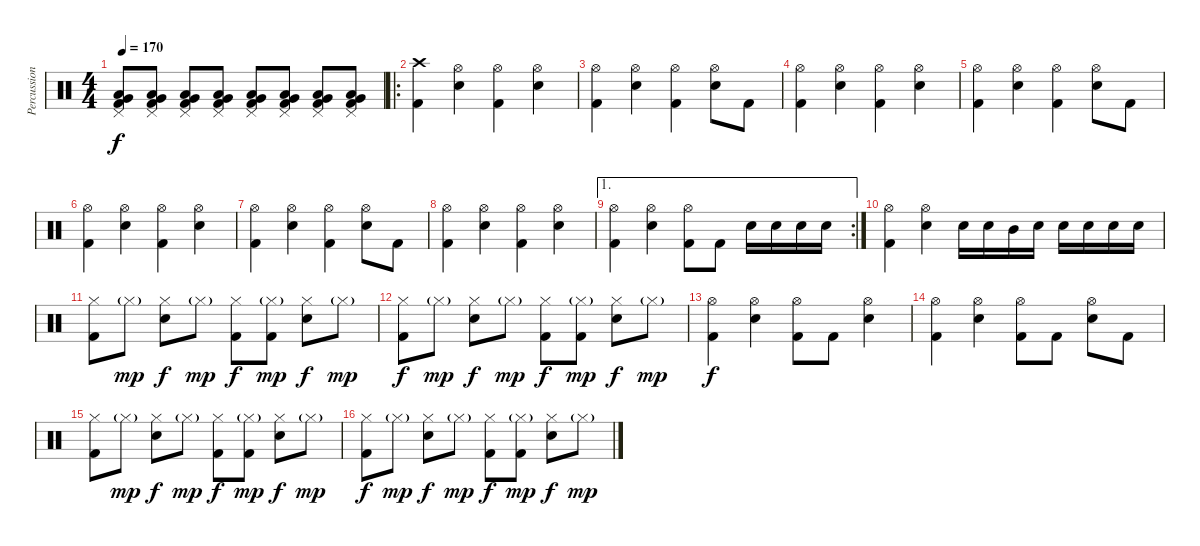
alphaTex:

\track ("Percussion" "Percussion") {instrument percussion}
\staff {score}
\articulation defaults
\ts (4 4)
\tempo 170
\clef neutral
\ks c
("Pedal Hi-Hat (hit)" "Low Tom (hit)" "Very Low Tom (hit)" "Kick (hit) 2").8{dy f} ("Pedal Hi-Hat (hit)" "Low Tom (hit)" "Very Low Tom (hit)" "Kick (hit) 2").8 ("Pedal Hi-Hat (hit)" "Low Tom (hit)" "Very Low Tom (hit)" "Kick (hit) 2").8 ("Pedal Hi-Hat (hit)" "Low Tom (hit)" "Very Low Tom (hit)" "Kick (hit) 2").8 ("Pedal Hi-Hat (hit)" "Low Tom (hit)" "Very Low Tom (hit)" "Kick (hit) 2").8 ("Pedal Hi-Hat (hit)" "Low Tom (hit)" "Very Low Tom (hit)" "Kick (hit) 2").8 ("Pedal Hi-Hat (hit)" "Low Tom (hit)" "Very Low Tom (hit)" "Kick (hit) 2").8 ("Pedal Hi-Hat (hit)" "Low Tom (hit)" "Very Low Tom (hit)" "Kick (hit) 2").8 |
\ro
("Crash high (hit)" "Kick (hit) 2").4 ("Hi-Hat (open)" "Snare (hit) 2").4 ("Hi-Hat (open)" "Kick (hit) 2").4 ("Hi-Hat (open)" "Snare (hit) 2").4 |
("Hi-Hat (open)" "Kick (hit) 2").4 ("Hi-Hat (open)" "Snare (hit) 2").4 ("Hi-Hat (open)" "Kick (hit) 2").4 ("Hi-Hat (open)" "Snare (hit) 2").8 "Kick (hit) 2".8 |
("Hi-Hat (open)" "Kick (hit) 2").4 ("Hi-Hat (open)" "Snare (hit) 2").4 ("Hi-Hat (open)" "Kick (hit) 2").4 ("Hi-Hat (open)" "Snare (hit) 2").4 |
("Hi-Hat (open)" "Kick (hit) 2").4 ("Hi-Hat (open)" "Snare (hit) 2").4 ("Hi-Hat (open)" "Kick (hit) 2").4 ("Hi-Hat (open)" "Snare (hit) 2").8 "Kick (hit) 2".8 |
("Hi-Hat (open)" "Kick (hit) 2").4 ("Hi-Hat (open)" "Snare (hit) 2").4 ("Hi-Hat (open)" "Kick (hit) 2").4 ("Hi-Hat (open)" "Snare (hit) 2").4 |
("Hi-Hat (open)" "Kick (hit) 2").4 ("Hi-Hat (open)" "Snare (hit) 2").4 ("Hi-Hat (open)" "Kick (hit) 2").4 ("Hi-Hat (open)" "Snare (hit) 2").8 "Kick (hit) 2".8 |
("Hi-Hat (open)" "Kick (hit) 2").4 ("Hi-Hat (open)" "Snare (hit) 2").4 ("Hi-Hat (open)" "Kick (hit) 2").4 ("Hi-Hat (open)" "Snare (hit) 2").4 |
\ae 1
\rc 2
("Hi-Hat (open)" "Kick (hit) 2").4 ("Hi-Hat (open)" "Snare (hit) 2").4 ("Hi-Hat (open)" "Kick (hit) 2").8 "Kick (hit) 2".8 "Snare (hit) 2".16 "Snare (hit) 2".16 "Snare (hit) 2".16 "Snare (hit) 2".16 |
("Hi-Hat (open)" "Kick (hit) 2").4 ("Hi-Hat (open)" "Snare (hit) 2").4 "Snare (hit) 2".16 "Snare (hit) 2".16 "Mid Tom (hit)".16 "Snare (hit) 2".16 "Snare (hit) 2".16 "Snare (hit) 2".16 "Snare (hit) 2".16 "Snare (hit) 2".16 |
("Hi-Hat (closed)" "Kick (hit) 2").8 "Hi-Hat (closed)"{g}.8{dy mp} ("Hi-Hat (closed)" "Snare (hit) 2").8{dy f} "Hi-Hat (closed)"{g}.8{dy mp} ("Hi-Hat (closed)" "Kick (hit) 2").8{dy f} ("Hi-Hat (closed)"{g} "Kick (hit) 2").8{dy mp} ("Hi-Hat (closed)" "Snare (hit) 2").8{dy f} "Hi-Hat (closed)"{g}.8{dy mp} |
("Hi-Hat (closed)" "Kick (hit) 2").8{dy f} "Hi-Hat (closed)"{g}.8{dy mp} ("Hi-Hat (closed)" "Snare (hit) 2").8{dy f} "Hi-Hat (closed)"{g}.8{dy mp} ("Hi-Hat (closed)" "Kick (hit) 2").8{dy f} ("Hi-Hat (closed)"{g} "Kick (hit) 2").8{dy mp} ("Hi-Hat (closed)" "Snare (hit) 2").8{dy f} "Hi-Hat (closed)"{g}.8{dy mp} |
("Hi-Hat (open)" "Kick (hit) 2").4{dy f} ("Hi-Hat (open)" "Snare (hit) 2").4 ("Hi-Hat (open)" "Kick (hit) 2").8 "Kick (hit) 2".8 ("Hi-Hat (open)" "Snare (hit) 2").4 |
("Hi-Hat (open)" "Kick (hit) 2").4 ("Hi-Hat (open)" "Snare (hit) 2").4 ("Hi-Hat (open)" "Kick (hit) 2").8 "Kick (hit) 2".8 ("Hi-Hat (open)" "Snare (hit) 2").8 "Kick (hit) 2".8 |
("Hi-Hat (closed)" "Kick (hit) 2").8 "Hi-Hat (closed)"{g}.8{dy mp} ("Hi-Hat (closed)" "Snare (hit) 2").8{dy f} "Hi-Hat (closed)"{g}.8{dy mp} ("Hi-Hat (closed)" "Kick (hit) 2").8{dy f} ("Hi-Hat (closed)"{g} "Kick (hit) 2").8{dy mp} ("Hi-Hat (closed)" "Snare (hit) 2").8{dy f} "Hi-Hat (closed)"{g}.8{dy mp} |
("Hi-Hat (closed)" "Kick (hit) 2").8{dy f} "Hi-Hat (closed)"{g}.8{dy mp} ("Hi-Hat (closed)" "Snare (hit) 2").8{dy f} "Hi-Hat (closed)"{g}.8{dy mp} ("Hi-Hat (closed)" "Kick (hit) 2").8{dy f} ("Hi-Hat (closed)"{g} "Kick (hit) 2").8{dy mp} ("Hi-Hat (closed)" "Snare (hit) 2").8{dy f} "Hi-Hat (closed)"{g}.8{dy mp}
